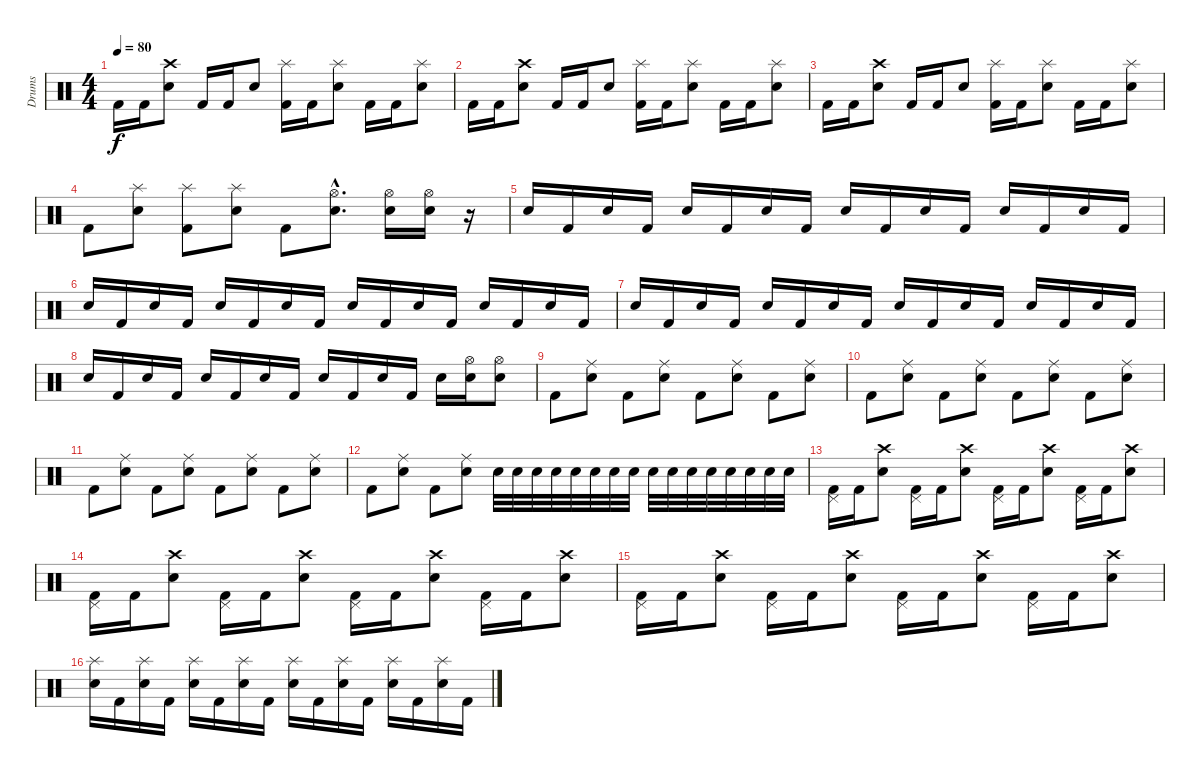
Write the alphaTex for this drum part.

\track ("Drums" "Drums") {instrument percussion}
\staff {score}
\articulation defaults
\ts (4 4)
\tempo 80
\clef neutral
\ks c "Kick (hit) 2".16{dy f} "Kick (hit) 2".16
("Electric Snare (hit)" "Crash high (hit)").8 "Kick (hit) 2".16 "Kick (hit) 2".16 "Electric Snare (hit)".8 ("Kick (hit) 2" "Splash (hit)").16 "Kick (hit) 2".16 ("Electric Snare (hit)" "Splash (hit)").8 "Kick (hit) 2".16 "Kick (hit) 2".16 ("Electric Snare (hit)" "Splash (hit)").8 |
"Kick (hit) 2".16 "Kick (hit) 2".16 ("Electric Snare (hit)" "Crash high (hit)").8 "Kick (hit) 2".16 "Kick (hit) 2".16 "Electric Snare (hit)".8 ("Kick (hit) 2" "Splash (hit)").16 "Kick (hit) 2".16 ("Electric Snare (hit)" "Splash (hit)").8 "Kick (hit) 2".16 "Kick (hit) 2".16 ("Electric Snare (hit)" "Splash (hit)").8 |
"Kick (hit) 2".16 "Kick (hit) 2".16 ("Electric Snare (hit)" "Crash high (hit)").8 "Kick (hit) 2".16 "Kick (hit) 2".16 "Electric Snare (hit)".8 ("Kick (hit) 2" "Splash (hit)").16 "Kick (hit) 2".16 ("Electric Snare (hit)" "Splash (hit)").8 "Kick (hit) 2".16 "Kick (hit) 2".16 ("Electric Snare (hit)" "Splash (hit)").8 |
"Kick (hit) 2".8 ("Electric Snare (hit)" "Splash (hit)").8 ("Kick (hit) 2" "Splash (hit)").8 ("Electric Snare (hit)" "Splash (hit)").8 "Kick (hit) 2".8 ("Electric Snare (hit)"{hac} "Hi-Hat (open)"{hac}).8{d} ("Electric Snare (hit)" "Hi-Hat (open)").16 ("Electric Snare (hit)" "Hi-Hat (open)").16 r.16 |
"Electric Snare (hit)".16 "Kick (hit) 2".16 "Electric Snare (hit)".16 "Kick (hit) 2".16 "Electric Snare (hit)".16 "Kick (hit) 2".16 "Electric Snare (hit)".16 "Kick (hit) 2".16 "Electric Snare (hit)".16 "Kick (hit) 2".16 "Electric Snare (hit)".16 "Kick (hit) 2".16 "Electric Snare (hit)".16 "Kick (hit) 2".16 "Electric Snare (hit)".16 "Kick (hit) 2".16 |
"Electric Snare (hit)".16 "Kick (hit) 2".16 "Electric Snare (hit)".16 "Kick (hit) 2".16 "Electric Snare (hit)".16 "Kick (hit) 2".16 "Electric Snare (hit)".16 "Kick (hit) 2".16 "Electric Snare (hit)".16 "Kick (hit) 2".16 "Electric Snare (hit)".16 "Kick (hit) 2".16 "Electric Snare (hit)".16 "Kick (hit) 2".16 "Electric Snare (hit)".16 "Kick (hit) 2".16 |
"Electric Snare (hit)".16 "Kick (hit) 2".16 "Electric Snare (hit)".16 "Kick (hit) 2".16 "Electric Snare (hit)".16 "Kick (hit) 2".16 "Electric Snare (hit)".16 "Kick (hit) 2".16 "Electric Snare (hit)".16 "Kick (hit) 2".16 "Electric Snare (hit)".16 "Kick (hit) 2".16 "Electric Snare (hit)".16 "Kick (hit) 2".16 "Electric Snare (hit)".16 "Kick (hit) 2".16 |
"Electric Snare (hit)".16 "Kick (hit) 2".16 "Electric Snare (hit)".16 "Kick (hit) 2".16 "Electric Snare (hit)".16 "Kick (hit) 2".16 "Electric Snare (hit)".16 "Kick (hit) 2".16 "Electric Snare (hit)".16 "Kick (hit) 2".16 "Electric Snare (hit)".16 "Kick (hit) 2".16 "Electric Snare (hit)".16 ("Electric Snare (hit)" "Hi-Hat (open)").16 ("Electric Snare (hit)" "Hi-Hat (open)").8 |
"Kick (hit) 2".8 ("Electric Snare (hit)" "Ride (middle)").8 "Kick (hit) 2".8 ("Electric Snare (hit)" "Ride (middle)").8 "Kick (hit) 2".8 ("Electric Snare (hit)" "Ride (middle)").8 "Kick (hit) 2".8 ("Electric Snare (hit)" "Ride (middle)").8 |
"Kick (hit) 2".8 ("Electric Snare (hit)" "Ride (middle)").8 "Kick (hit) 2".8 ("Electric Snare (hit)" "Ride (middle)").8 "Kick (hit) 2".8 ("Electric Snare (hit)" "Ride (middle)").8 "Kick (hit) 2".8 ("Electric Snare (hit)" "Ride (middle)").8 |
"Kick (hit) 2".8 ("Electric Snare (hit)" "Ride (middle)").8 "Kick (hit) 2".8 ("Electric Snare (hit)" "Ride (middle)").8 "Kick (hit) 2".8 ("Electric Snare (hit)" "Ride (middle)").8 "Kick (hit) 2".8 ("Electric Snare (hit)" "Ride (middle)").8 |
"Kick (hit) 2".8 ("Electric Snare (hit)" "Ride (middle)").8 "Kick (hit) 2".8 ("Electric Snare (hit)" "Ride (middle)").8 "Electric Snare (hit)".32 "Electric Snare (hit)".32 "Electric Snare (hit)".32 "Electric Snare (hit)".32 "Electric Snare (hit)".32 "Electric Snare (hit)".32 "Electric Snare (hit)".32 "Electric Snare (hit)".32 "Electric Snare (hit)".32 "Electric Snare (hit)".32 "Electric Snare (hit)".32 "Electric Snare (hit)".32 "Electric Snare (hit)".32 "Electric Snare (hit)".32 "Electric Snare (hit)".32 "Electric Snare (hit)".32 |
("Kick (hit) 2" "Pedal Hi-Hat (hit)").16 "Kick (hit) 2".16 ("Electric Snare (hit)" "Crash high (hit)").8 ("Kick (hit) 2" "Pedal Hi-Hat (hit)").16 "Kick (hit) 2".16 ("Electric Snare (hit)" "Crash high (hit)").8 ("Kick (hit) 2" "Pedal Hi-Hat (hit)").16 "Kick (hit) 2".16 ("Electric Snare (hit)" "Crash high (hit)").8 ("Kick (hit) 2" "Pedal Hi-Hat (hit)").16 "Kick (hit) 2".16 ("Electric Snare (hit)" "Crash high (hit)").8 |
("Kick (hit) 2" "Pedal Hi-Hat (hit)").16 "Kick (hit) 2".16 ("Electric Snare (hit)" "Crash high (hit)").8 ("Kick (hit) 2" "Pedal Hi-Hat (hit)").16 "Kick (hit) 2".16 ("Electric Snare (hit)" "Crash high (hit)").8 ("Kick (hit) 2" "Pedal Hi-Hat (hit)").16 "Kick (hit) 2".16 ("Electric Snare (hit)" "Crash high (hit)").8 ("Kick (hit) 2" "Pedal Hi-Hat (hit)").16 "Kick (hit) 2".16 ("Electric Snare (hit)" "Crash high (hit)").8 |
("Kick (hit) 2" "Pedal Hi-Hat (hit)").16 "Kick (hit) 2".16 ("Electric Snare (hit)" "Crash high (hit)").8 ("Kick (hit) 2" "Pedal Hi-Hat (hit)").16 "Kick (hit) 2".16 ("Electric Snare (hit)" "Crash high (hit)").8 ("Kick (hit) 2" "Pedal Hi-Hat (hit)").16 "Kick (hit) 2".16 ("Electric Snare (hit)" "Crash high (hit)").8 ("Kick (hit) 2" "Pedal Hi-Hat (hit)").16 "Kick (hit) 2".16 ("Electric Snare (hit)" "Crash high (hit)").8 |
("Electric Snare (hit)" "Splash (hit)").16 "Kick (hit) 2".16 ("Electric Snare (hit)" "Splash (hit)").16 "Kick (hit) 2".16 ("Electric Snare (hit)" "Splash (hit)").16 "Kick (hit) 2".16 ("Electric Snare (hit)" "Splash (hit)").16 "Kick (hit) 2".16 ("Electric Snare (hit)" "Splash (hit)").16 "Kick (hit) 2".16 ("Electric Snare (hit)" "Splash (hit)").16 "Kick (hit) 2".16 ("Electric Snare (hit)" "Splash (hit)").16 "Kick (hit) 2".16 ("Electric Snare (hit)" "Splash (hit)").16 "Kick (hit) 2".16
